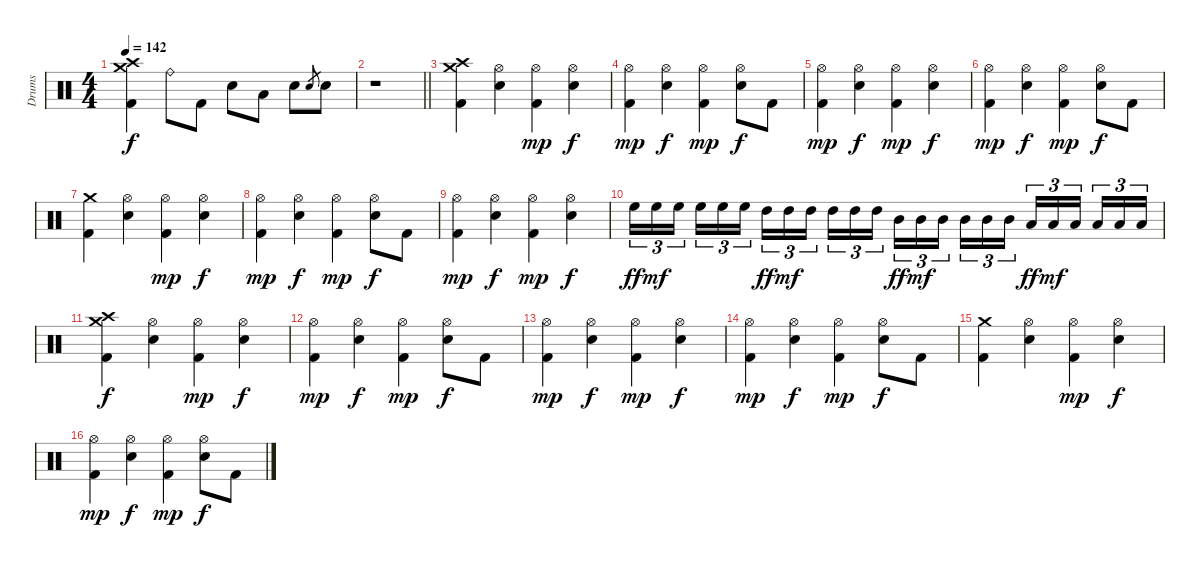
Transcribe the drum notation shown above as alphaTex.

\track ("Drums" "Drums") {instrument percussion}
\staff {score}
\articulation defaults
\ts (4 4)
\tempo 142
\clef neutral
\ks c
("Crash high (hit)" "Crash medium (hit)" "Kick (hit) 2").4{dy f} "Ride (bell)".8 "Kick (hit) 2".8 "Electric Snare (hit)".8 "Low Tom (hit)".8 "Electric Snare (hit)".8 "Electric Snare (hit)".8{gr} "Electric Snare (hit)".8 |
\barLineRight lightlight
r.1 |
("Crash high (hit)" "Crash medium (hit)" "Kick (hit) 2").4 ("Hi-Hat (open)" "Electric Snare (hit)").4 ("Hi-Hat (open)" "Kick (hit) 2").4{dy mp} ("Hi-Hat (open)" "Electric Snare (hit)").4{dy f} |
("Hi-Hat (open)" "Kick (hit) 2").4{dy mp} ("Hi-Hat (open)" "Electric Snare (hit)").4{dy f} ("Hi-Hat (open)" "Kick (hit) 2").4{dy mp} ("Hi-Hat (open)" "Electric Snare (hit)").8{dy f} "Kick (hit) 2".8 |
("Hi-Hat (open)" "Kick (hit) 2").4{dy mp} ("Hi-Hat (open)" "Electric Snare (hit)").4{dy f} ("Hi-Hat (open)" "Kick (hit) 2").4{dy mp} ("Hi-Hat (open)" "Electric Snare (hit)").4{dy f} |
("Hi-Hat (open)" "Kick (hit) 2").4{dy mp} ("Hi-Hat (open)" "Electric Snare (hit)").4{dy f} ("Hi-Hat (open)" "Kick (hit) 2").4{dy mp} ("Hi-Hat (open)" "Electric Snare (hit)").8{dy f} "Kick (hit) 2".8 |
("Crash medium (hit)" "Kick (hit) 2").4 ("Hi-Hat (open)" "Electric Snare (hit)").4 ("Hi-Hat (open)" "Kick (hit) 2").4{dy mp} ("Hi-Hat (open)" "Electric Snare (hit)").4{dy f} |
("Hi-Hat (open)" "Kick (hit) 2").4{dy mp} ("Hi-Hat (open)" "Electric Snare (hit)").4{dy f} ("Hi-Hat (open)" "Kick (hit) 2").4{dy mp} ("Hi-Hat (open)" "Electric Snare (hit)").8{dy f} "Kick (hit) 2".8 |
("Hi-Hat (open)" "Kick (hit) 2").4{dy mp} ("Hi-Hat (open)" "Electric Snare (hit)").4{dy f} ("Hi-Hat (open)" "Kick (hit) 2").4{dy mp} ("Hi-Hat (open)" "Electric Snare (hit)").4{dy f} |
"High Floor Tom (hit)".16{tu (3 2) dy ff} "High Floor Tom (hit)".16{tu (3 2) dy mf} "High Floor Tom (hit)".16{tu (3 2)} "High Floor Tom (hit)".16{tu (3 2)} "High Floor Tom (hit)".16{tu (3 2)} "High Floor Tom (hit)".16{tu (3 2)} "High Tom (hit)".16{tu (3 2) dy ff} "High Tom (hit)".16{tu (3 2) dy mf} "High Tom (hit)".16{tu (3 2)} "High Tom (hit)".16{tu (3 2)} "High Tom (hit)".16{tu (3 2)} "High Tom (hit)".16{tu (3 2)} "Mid Tom (hit)".16{tu (3 2) dy ff} "Mid Tom (hit)".16{tu (3 2) dy mf} "Mid Tom (hit)".16{tu (3 2)} "Mid Tom (hit)".16{tu (3 2)} "Mid Tom (hit)".16{tu (3 2)} "Mid Tom (hit)".16{tu (3 2)} "Low Tom (hit)".16{tu (3 2) dy ff} "Low Tom (hit)".16{tu (3 2) dy mf} "Low Tom (hit)".16{tu (3 2)} "Low Tom (hit)".16{tu (3 2)} "Low Tom (hit)".16{tu (3 2)} "Low Tom (hit)".16{tu (3 2)} |
("Crash high (hit)" "Crash medium (hit)" "Kick (hit) 2").4{dy f} ("Hi-Hat (open)" "Electric Snare (hit)").4 ("Hi-Hat (open)" "Kick (hit) 2").4{dy mp} ("Hi-Hat (open)" "Electric Snare (hit)").4{dy f} |
("Hi-Hat (open)" "Kick (hit) 2").4{dy mp} ("Hi-Hat (open)" "Electric Snare (hit)").4{dy f} ("Hi-Hat (open)" "Kick (hit) 2").4{dy mp} ("Hi-Hat (open)" "Electric Snare (hit)").8{dy f} "Kick (hit) 2".8 |
("Hi-Hat (open)" "Kick (hit) 2").4{dy mp} ("Hi-Hat (open)" "Electric Snare (hit)").4{dy f} ("Hi-Hat (open)" "Kick (hit) 2").4{dy mp} ("Hi-Hat (open)" "Electric Snare (hit)").4{dy f} |
("Hi-Hat (open)" "Kick (hit) 2").4{dy mp} ("Hi-Hat (open)" "Electric Snare (hit)").4{dy f} ("Hi-Hat (open)" "Kick (hit) 2").4{dy mp} ("Hi-Hat (open)" "Electric Snare (hit)").8{dy f} "Kick (hit) 2".8 |
("Crash medium (hit)" "Kick (hit) 2").4 ("Hi-Hat (open)" "Electric Snare (hit)").4 ("Hi-Hat (open)" "Kick (hit) 2").4{dy mp} ("Hi-Hat (open)" "Electric Snare (hit)").4{dy f} |
("Hi-Hat (open)" "Kick (hit) 2").4{dy mp} ("Hi-Hat (open)" "Electric Snare (hit)").4{dy f} ("Hi-Hat (open)" "Kick (hit) 2").4{dy mp} ("Hi-Hat (open)" "Electric Snare (hit)").8{dy f} "Kick (hit) 2".8
